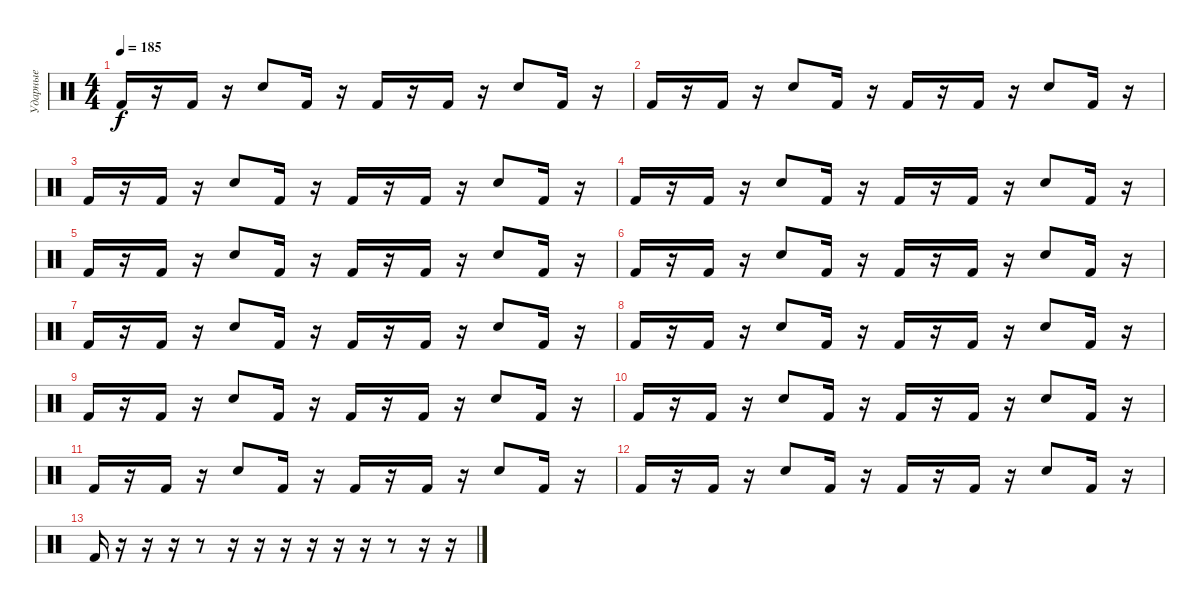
\track ("Ударные" "Ударные") {instrument percussion}
\staff {score}
\articulation defaults
\ts (4 4)
\tempo 185
\clef neutral
\ks c "Kick (hit) 2".16{dy f}
r.16 "Kick (hit) 2".16 r.16 "Electric Snare (hit)".8 "Kick (hit) 2".16 r.16 "Kick (hit) 2".16 r.16 "Kick (hit) 2".16 r.16 "Electric Snare (hit)".8 "Kick (hit) 2".16 r.16 |
"Kick (hit) 2".16 r.16 "Kick (hit) 2".16 r.16 "Electric Snare (hit)".8 "Kick (hit) 2".16 r.16 "Kick (hit) 2".16 r.16 "Kick (hit) 2".16 r.16 "Electric Snare (hit)".8 "Kick (hit) 2".16 r.16 |
"Kick (hit) 2".16 r.16 "Kick (hit) 2".16 r.16 "Electric Snare (hit)".8 "Kick (hit) 2".16 r.16 "Kick (hit) 2".16 r.16 "Kick (hit) 2".16 r.16 "Electric Snare (hit)".8 "Kick (hit) 2".16 r.16 |
"Kick (hit) 2".16 r.16 "Kick (hit) 2".16 r.16 "Electric Snare (hit)".8 "Kick (hit) 2".16 r.16 "Kick (hit) 2".16 r.16 "Kick (hit) 2".16 r.16 "Electric Snare (hit)".8 "Kick (hit) 2".16 r.16 |
"Kick (hit) 2".16 r.16 "Kick (hit) 2".16 r.16 "Electric Snare (hit)".8 "Kick (hit) 2".16 r.16 "Kick (hit) 2".16 r.16 "Kick (hit) 2".16 r.16 "Electric Snare (hit)".8 "Kick (hit) 2".16 r.16 |
"Kick (hit) 2".16 r.16 "Kick (hit) 2".16 r.16 "Electric Snare (hit)".8 "Kick (hit) 2".16 r.16 "Kick (hit) 2".16 r.16 "Kick (hit) 2".16 r.16 "Electric Snare (hit)".8 "Kick (hit) 2".16 r.16 |
"Kick (hit) 2".16 r.16 "Kick (hit) 2".16 r.16 "Electric Snare (hit)".8 "Kick (hit) 2".16 r.16 "Kick (hit) 2".16 r.16 "Kick (hit) 2".16 r.16 "Electric Snare (hit)".8 "Kick (hit) 2".16 r.16 |
"Kick (hit) 2".16 r.16 "Kick (hit) 2".16 r.16 "Electric Snare (hit)".8 "Kick (hit) 2".16 r.16 "Kick (hit) 2".16 r.16 "Kick (hit) 2".16 r.16 "Electric Snare (hit)".8 "Kick (hit) 2".16 r.16 |
"Kick (hit) 2".16 r.16 "Kick (hit) 2".16 r.16 "Electric Snare (hit)".8 "Kick (hit) 2".16 r.16 "Kick (hit) 2".16 r.16 "Kick (hit) 2".16 r.16 "Electric Snare (hit)".8 "Kick (hit) 2".16 r.16 |
"Kick (hit) 2".16 r.16 "Kick (hit) 2".16 r.16 "Electric Snare (hit)".8 "Kick (hit) 2".16 r.16 "Kick (hit) 2".16 r.16 "Kick (hit) 2".16 r.16 "Electric Snare (hit)".8 "Kick (hit) 2".16 r.16 |
"Kick (hit) 2".16 r.16 "Kick (hit) 2".16 r.16 "Electric Snare (hit)".8 "Kick (hit) 2".16 r.16 "Kick (hit) 2".16 r.16 "Kick (hit) 2".16 r.16 "Electric Snare (hit)".8 "Kick (hit) 2".16 r.16 |
"Kick (hit) 2".16 r.16 "Kick (hit) 2".16 r.16 "Electric Snare (hit)".8 "Kick (hit) 2".16 r.16 "Kick (hit) 2".16 r.16 "Kick (hit) 2".16 r.16 "Electric Snare (hit)".8 "Kick (hit) 2".16 r.16 |
"Kick (hit) 2".16 r.16 r.16 r.16 r.8 r.16 r.16 r.16 r.16 r.16 r.16 r.8 r.16 r.16
